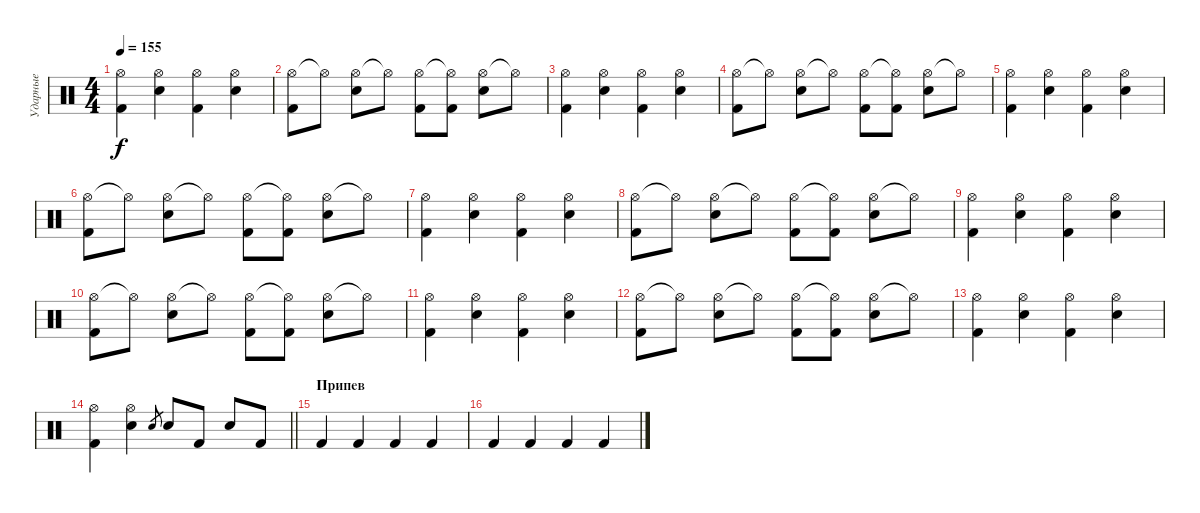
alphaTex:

\track ("Ударные" "Ударные") {solo instrument percussion}
\staff {score}
\articulation defaults
\ts (4 4)
\tempo 155
\clef neutral
\ks c
("Hi-Hat (open)" "Kick (hit) 2").4{dy f} ("Hi-Hat (open)" "Electric Snare (hit)").4 ("Hi-Hat (open)" "Kick (hit) 2").4 ("Hi-Hat (open)" "Electric Snare (hit)").4 |
("Hi-Hat (open)" "Kick (hit) 2").8 "Hi-Hat (open)"{t}.8 ("Hi-Hat (open)" "Electric Snare (hit)").8 "Hi-Hat (open)"{t}.8 ("Hi-Hat (open)" "Kick (hit) 2").8 ("Hi-Hat (open)"{t} "Kick (hit) 2").8 ("Hi-Hat (open)" "Electric Snare (hit)").8 "Hi-Hat (open)"{t}.8 |
("Hi-Hat (open)" "Kick (hit) 2").4 ("Hi-Hat (open)" "Electric Snare (hit)").4 ("Hi-Hat (open)" "Kick (hit) 2").4 ("Hi-Hat (open)" "Electric Snare (hit)").4 |
("Hi-Hat (open)" "Kick (hit) 2").8 "Hi-Hat (open)"{t}.8 ("Hi-Hat (open)" "Electric Snare (hit)").8 "Hi-Hat (open)"{t}.8 ("Hi-Hat (open)" "Kick (hit) 2").8 ("Hi-Hat (open)"{t} "Kick (hit) 2").8 ("Hi-Hat (open)" "Electric Snare (hit)").8 "Hi-Hat (open)"{t}.8 |
("Hi-Hat (open)" "Kick (hit) 2").4 ("Hi-Hat (open)" "Electric Snare (hit)").4 ("Hi-Hat (open)" "Kick (hit) 2").4 ("Hi-Hat (open)" "Electric Snare (hit)").4 |
("Hi-Hat (open)" "Kick (hit) 2").8 "Hi-Hat (open)"{t}.8 ("Hi-Hat (open)" "Electric Snare (hit)").8 "Hi-Hat (open)"{t}.8 ("Hi-Hat (open)" "Kick (hit) 2").8 ("Hi-Hat (open)"{t} "Kick (hit) 2").8 ("Hi-Hat (open)" "Electric Snare (hit)").8 "Hi-Hat (open)"{t}.8 |
("Hi-Hat (open)" "Kick (hit) 2").4 ("Hi-Hat (open)" "Electric Snare (hit)").4 ("Hi-Hat (open)" "Kick (hit) 2").4 ("Hi-Hat (open)" "Electric Snare (hit)").4 |
("Hi-Hat (open)" "Kick (hit) 2").8 "Hi-Hat (open)"{t}.8 ("Hi-Hat (open)" "Electric Snare (hit)").8 "Hi-Hat (open)"{t}.8 ("Hi-Hat (open)" "Kick (hit) 2").8 ("Hi-Hat (open)"{t} "Kick (hit) 2").8 ("Hi-Hat (open)" "Electric Snare (hit)").8 "Hi-Hat (open)"{t}.8 |
("Hi-Hat (open)" "Kick (hit) 2").4 ("Hi-Hat (open)" "Electric Snare (hit)").4 ("Hi-Hat (open)" "Kick (hit) 2").4 ("Hi-Hat (open)" "Electric Snare (hit)").4 |
("Hi-Hat (open)" "Kick (hit) 2").8 "Hi-Hat (open)"{t}.8 ("Hi-Hat (open)" "Electric Snare (hit)").8 "Hi-Hat (open)"{t}.8 ("Hi-Hat (open)" "Kick (hit) 2").8 ("Hi-Hat (open)"{t} "Kick (hit) 2").8 ("Hi-Hat (open)" "Electric Snare (hit)").8 "Hi-Hat (open)"{t}.8 |
("Hi-Hat (open)" "Kick (hit) 2").4 ("Hi-Hat (open)" "Electric Snare (hit)").4 ("Hi-Hat (open)" "Kick (hit) 2").4 ("Hi-Hat (open)" "Electric Snare (hit)").4 |
("Hi-Hat (open)" "Kick (hit) 2").8 "Hi-Hat (open)"{t}.8 ("Hi-Hat (open)" "Electric Snare (hit)").8 "Hi-Hat (open)"{t}.8 ("Hi-Hat (open)" "Kick (hit) 2").8 ("Hi-Hat (open)"{t} "Kick (hit) 2").8 ("Hi-Hat (open)" "Electric Snare (hit)").8 "Hi-Hat (open)"{t}.8 |
("Hi-Hat (open)" "Kick (hit) 2").4 ("Hi-Hat (open)" "Electric Snare (hit)").4 ("Hi-Hat (open)" "Kick (hit) 2").4 ("Hi-Hat (open)" "Electric Snare (hit)").4 |
\barLineRight lightlight
("Hi-Hat (open)" "Kick (hit) 2").4 ("Hi-Hat (open)" "Electric Snare (hit)").4 "Electric Snare (hit)".8{gr} "Electric Snare (hit)".8 "Kick (hit) 2".8 "Electric Snare (hit)".8 "Kick (hit) 2".8 |
\section ("" "Припев")
"Kick (hit) 2".4 "Kick (hit) 2".4 "Kick (hit) 2".4 "Kick (hit) 2".4 |
"Kick (hit) 2".4 "Kick (hit) 2".4 "Kick (hit) 2".4 "Kick (hit) 2".4
